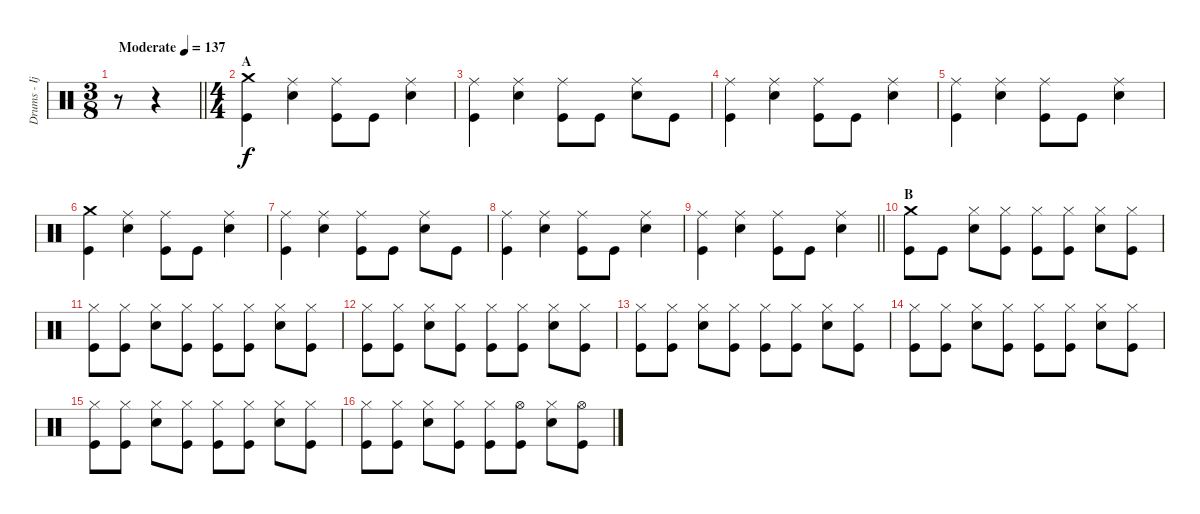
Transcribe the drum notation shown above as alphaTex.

\track ("Drums - Ijichi" "Drums - Ij") {instrument percussion}
\staff {score}
\articulation defaults
\ts (3 8)
\tempo (137 "Moderate")
\clef neutral
\barLineRight lightlight
\ks c
r.8{dy f} r.4 |
\ts (4 4)
\section ("" "A")
("Crash medium (hit)" "Kick (hit)").4 ("Ride (middle)" "Electric Snare (hit)").4 ("Ride (middle)" "Kick (hit)").8 "Kick (hit)".8 ("Ride (middle)" "Electric Snare (hit)").4 |
("Ride (middle)" "Kick (hit)").4 ("Ride (middle)" "Electric Snare (hit)").4 ("Ride (middle)" "Kick (hit)").8 "Kick (hit)".8 ("Ride (middle)" "Electric Snare (hit)").8 "Kick (hit)".8 |
("Ride (middle)" "Kick (hit)").4 ("Ride (middle)" "Electric Snare (hit)").4 ("Ride (middle)" "Kick (hit)").8 "Kick (hit)".8 ("Ride (middle)" "Electric Snare (hit)").4 |
("Ride (middle)" "Kick (hit)").4 ("Ride (middle)" "Electric Snare (hit)").4 ("Ride (middle)" "Kick (hit)").8 "Kick (hit)".8 ("Ride (middle)" "Electric Snare (hit)").4 |
("Crash medium (hit)" "Kick (hit)").4 ("Ride (middle)" "Electric Snare (hit)").4 ("Ride (middle)" "Kick (hit)").8 "Kick (hit)".8 ("Ride (middle)" "Electric Snare (hit)").4 |
("Ride (middle)" "Kick (hit)").4 ("Ride (middle)" "Electric Snare (hit)").4 ("Ride (middle)" "Kick (hit)").8 "Kick (hit)".8 ("Ride (middle)" "Electric Snare (hit)").8 "Kick (hit)".8 |
("Ride (middle)" "Kick (hit)").4 ("Ride (middle)" "Electric Snare (hit)").4 ("Ride (middle)" "Kick (hit)").8 "Kick (hit)".8 ("Ride (middle)" "Electric Snare (hit)").4 |
\barLineRight lightlight
("Ride (middle)" "Kick (hit)").4 ("Ride (middle)" "Electric Snare (hit)").4 ("Ride (middle)" "Kick (hit)").8 "Kick (hit)".8 ("Ride (middle)" "Electric Snare (hit)").4 |
\section ("" "B")
("Crash medium (hit)" "Kick (hit)").8 "Kick (hit)".8 ("Hi-Hat (closed)" "Electric Snare (hit)").8 ("Hi-Hat (closed)" "Kick (hit)").8 ("Hi-Hat (closed)" "Kick (hit)").8 ("Hi-Hat (closed)" "Kick (hit)").8 ("Hi-Hat (closed)" "Electric Snare (hit)").8 ("Hi-Hat (closed)" "Kick (hit)").8 |
("Hi-Hat (closed)" "Kick (hit)").8 ("Hi-Hat (closed)" "Kick (hit)").8 ("Hi-Hat (closed)" "Electric Snare (hit)").8 ("Hi-Hat (closed)" "Kick (hit)").8 ("Hi-Hat (closed)" "Kick (hit)").8 ("Hi-Hat (closed)" "Kick (hit)").8 ("Hi-Hat (closed)" "Electric Snare (hit)").8 ("Hi-Hat (closed)" "Kick (hit)").8 |
("Hi-Hat (closed)" "Kick (hit)").8 ("Hi-Hat (closed)" "Kick (hit)").8 ("Hi-Hat (closed)" "Electric Snare (hit)").8 ("Hi-Hat (closed)" "Kick (hit)").8 ("Hi-Hat (closed)" "Kick (hit)").8 ("Hi-Hat (closed)" "Kick (hit)").8 ("Hi-Hat (closed)" "Electric Snare (hit)").8 ("Hi-Hat (closed)" "Kick (hit)").8 |
("Hi-Hat (closed)" "Kick (hit)").8 ("Hi-Hat (closed)" "Kick (hit)").8 ("Hi-Hat (closed)" "Electric Snare (hit)").8 ("Hi-Hat (closed)" "Kick (hit)").8 ("Hi-Hat (closed)" "Kick (hit)").8 ("Hi-Hat (closed)" "Kick (hit)").8 ("Hi-Hat (closed)" "Electric Snare (hit)").8 ("Hi-Hat (closed)" "Kick (hit)").8 |
("Hi-Hat (closed)" "Kick (hit)").8 ("Hi-Hat (closed)" "Kick (hit)").8 ("Hi-Hat (closed)" "Electric Snare (hit)").8 ("Hi-Hat (closed)" "Kick (hit)").8 ("Hi-Hat (closed)" "Kick (hit)").8 ("Hi-Hat (closed)" "Kick (hit)").8 ("Hi-Hat (closed)" "Electric Snare (hit)").8 ("Hi-Hat (closed)" "Kick (hit)").8 |
("Hi-Hat (closed)" "Kick (hit)").8 ("Hi-Hat (closed)" "Kick (hit)").8 ("Hi-Hat (closed)" "Electric Snare (hit)").8 ("Hi-Hat (closed)" "Kick (hit)").8 ("Hi-Hat (closed)" "Kick (hit)").8 ("Hi-Hat (closed)" "Kick (hit)").8 ("Hi-Hat (closed)" "Electric Snare (hit)").8 ("Hi-Hat (closed)" "Kick (hit)").8 |
("Hi-Hat (closed)" "Kick (hit)").8 ("Hi-Hat (closed)" "Kick (hit)").8 ("Hi-Hat (closed)" "Electric Snare (hit)").8 ("Hi-Hat (closed)" "Kick (hit)").8 ("Hi-Hat (closed)" "Kick (hit)").8 ("Hi-Hat (open)" "Kick (hit)").8 ("Hi-Hat (closed)" "Electric Snare (hit)").8 ("Hi-Hat (open)" "Kick (hit)").8
